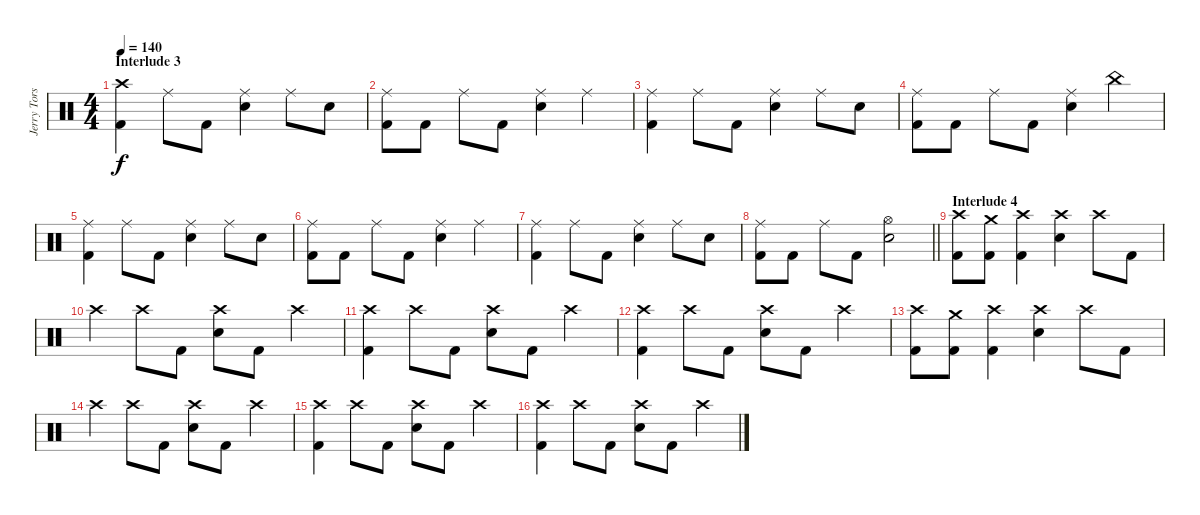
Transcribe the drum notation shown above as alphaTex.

\track ("Jerry Torstensson" "Jerry Tors") {instrument percussion}
\staff {score}
\articulation defaults
\ts (4 4)
\section ("" "Interlude 3")
\tempo 140
\clef neutral
\ks c
("Crash high (hit)" "Kick (hit) 2").4{dy f} "Ride (middle)".8 "Kick (hit) 2".8 ("Ride (middle)" "Snare (hit) 2").4 "Ride (middle)".8 "Snare (hit)".8 |
("Ride (middle)" "Kick (hit) 2").8 "Kick (hit) 2".8 "Ride (middle)".8 "Kick (hit) 2".8 ("Ride (middle)" "Snare (hit) 2").4 "Ride (middle)".4 |
("Ride (middle)" "Kick (hit) 2").4 "Ride (middle)".8 "Kick (hit) 2".8 ("Ride (middle)" "Snare (hit) 2").4 "Ride (middle)".8 "Snare (hit)".8 |
("Ride (middle)" "Kick (hit) 2").8 "Kick (hit) 2".8 "Ride (middle)".8 "Kick (hit) 2".8 ("Ride (middle)" "Snare (hit) 2").4 "China (hit)".4 |
("Ride (middle)" "Kick (hit) 2").4 "Ride (middle)".8 "Kick (hit) 2".8 ("Ride (middle)" "Snare (hit) 2").4 "Ride (middle)".8 "Snare (hit)".8 |
("Ride (middle)" "Kick (hit) 2").8 "Kick (hit) 2".8 "Ride (middle)".8 "Kick (hit) 2".8 ("Ride (middle)" "Snare (hit) 2").4 "Ride (middle)".4 |
("Ride (middle)" "Kick (hit) 2").4 "Ride (middle)".8 "Kick (hit) 2".8 ("Ride (middle)" "Snare (hit) 2").4 "Ride (middle)".8 "Snare (hit)".8 |
\barLineRight lightlight
("Ride (middle)" "Kick (hit) 2").8 "Kick (hit) 2".8 "Ride (middle)".8 "Kick (hit) 2".8 ("Hi-Hat (open)" "Snare (hit) 2").2 |
\section ("" "Interlude 4")
("Crash high (hit)" "Kick (hit) 2").8 ("Crash medium (hit)" "Kick (hit) 2").8 ("Crash high (hit)" "Kick (hit) 2").4 ("Crash high (hit)" "Snare (hit) 2").4 "Crash high (hit)".8 "Kick (hit) 2".8 |
"Crash high (hit)".4 "Crash high (hit)".8 "Kick (hit) 2".8 ("Crash high (hit)" "Snare (hit) 2").8 "Kick (hit) 2".8 "Crash high (hit)".4 |
("Crash high (hit)" "Kick (hit) 2").4 "Crash high (hit)".8 "Kick (hit) 2".8 ("Crash high (hit)" "Snare (hit) 2").8 "Kick (hit) 2".8 "Crash high (hit)".4 |
("Crash high (hit)" "Kick (hit) 2").4 "Crash high (hit)".8 "Kick (hit) 2".8 ("Crash high (hit)" "Snare (hit) 2").8 "Kick (hit) 2".8 "Crash high (hit)".4 |
("Crash high (hit)" "Kick (hit) 2").8 ("Crash medium (hit)" "Kick (hit) 2").8 ("Crash high (hit)" "Kick (hit) 2").4 ("Crash high (hit)" "Snare (hit) 2").4 "Crash high (hit)".8 "Kick (hit) 2".8 |
"Crash high (hit)".4 "Crash high (hit)".8 "Kick (hit) 2".8 ("Crash high (hit)" "Snare (hit) 2").8 "Kick (hit) 2".8 "Crash high (hit)".4 |
("Crash high (hit)" "Kick (hit) 2").4 "Crash high (hit)".8 "Kick (hit) 2".8 ("Crash high (hit)" "Snare (hit) 2").8 "Kick (hit) 2".8 "Crash high (hit)".4 |
("Crash high (hit)" "Kick (hit) 2").4 "Crash high (hit)".8 "Kick (hit) 2".8 ("Crash high (hit)" "Snare (hit) 2").8 "Kick (hit) 2".8 "Crash high (hit)".4
